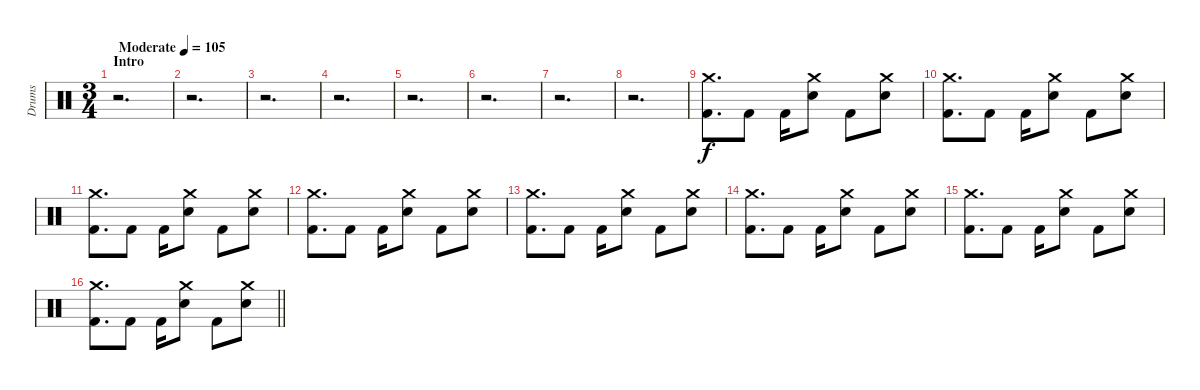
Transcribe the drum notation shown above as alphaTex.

\track ("Drums" "Drums") {instrument percussion}
\staff {score}
\articulation defaults
\ts (3 4)
\section ("" "Intro")
\tempo (105 "Moderate")
\clef neutral
\ks c
r.2{d dy f} |
r.2{d} |
r.2{d} |
r.2{d} |
r.2{d} |
r.2{d} |
r.2{d} |
r.2{d} |
("Crash medium (hit)" "Kick (hit) 2").8{d} "Kick (hit) 2".8 "Kick (hit) 2".16 ("Crash medium (hit)" "Electric Snare (hit)").8 "Kick (hit) 2".8 ("Crash medium (hit)" "Electric Snare (hit)").8 |
("Crash medium (hit)" "Kick (hit) 2").8{d} "Kick (hit) 2".8 "Kick (hit) 2".16 ("Crash medium (hit)" "Electric Snare (hit)").8 "Kick (hit) 2".8 ("Crash medium (hit)" "Electric Snare (hit)").8 |
("Crash medium (hit)" "Kick (hit) 2").8{d} "Kick (hit) 2".8 "Kick (hit) 2".16 ("Crash medium (hit)" "Electric Snare (hit)").8 "Kick (hit) 2".8 ("Crash medium (hit)" "Electric Snare (hit)").8 |
("Crash medium (hit)" "Kick (hit) 2").8{d} "Kick (hit) 2".8 "Kick (hit) 2".16 ("Crash medium (hit)" "Electric Snare (hit)").8 "Kick (hit) 2".8 ("Crash medium (hit)" "Electric Snare (hit)").8 |
("Crash medium (hit)" "Kick (hit) 2").8{d} "Kick (hit) 2".8 "Kick (hit) 2".16 ("Crash medium (hit)" "Electric Snare (hit)").8 "Kick (hit) 2".8 ("Crash medium (hit)" "Electric Snare (hit)").8 |
("Crash medium (hit)" "Kick (hit) 2").8{d} "Kick (hit) 2".8 "Kick (hit) 2".16 ("Crash medium (hit)" "Electric Snare (hit)").8 "Kick (hit) 2".8 ("Crash medium (hit)" "Electric Snare (hit)").8 |
("Crash medium (hit)" "Kick (hit) 2").8{d} "Kick (hit) 2".8 "Kick (hit) 2".16 ("Crash medium (hit)" "Electric Snare (hit)").8 "Kick (hit) 2".8 ("Crash medium (hit)" "Electric Snare (hit)").8 |
\barLineRight lightlight
("Crash medium (hit)" "Kick (hit) 2").8{d} "Kick (hit) 2".8 "Kick (hit) 2".16 ("Crash medium (hit)" "Electric Snare (hit)").8 "Kick (hit) 2".8 ("Crash medium (hit)" "Electric Snare (hit)").8
